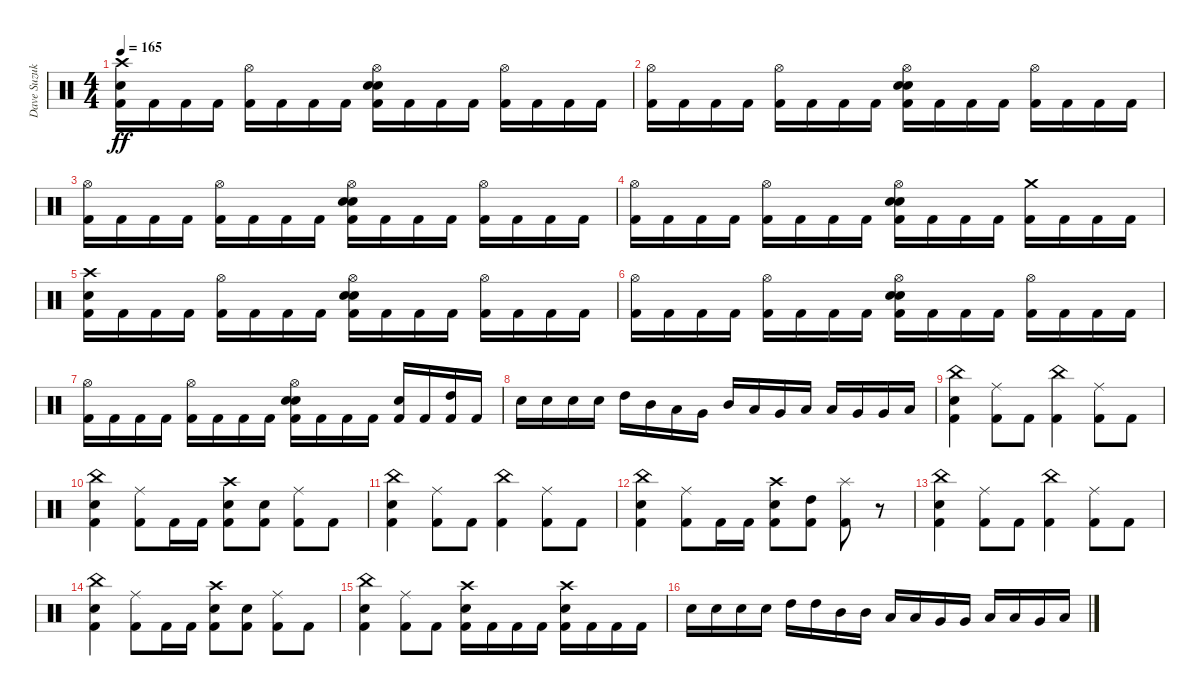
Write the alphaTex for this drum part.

\track ("Dave Suzuki - Drums" "Dave Suzuk") {instrument percussion}
\staff {score}
\articulation defaults
\ts (4 4)
\tempo 165
\clef neutral
\ks c
("Crash high (hit)" "Electric Snare (hit)" "Kick (hit) 2").16{dy ff} "Kick (hit) 2".16 "Kick (hit) 2".16 "Kick (hit) 2".16 ("Hi-Hat (open)" "Kick (hit) 2").16 "Kick (hit) 2".16 "Kick (hit) 2".16 "Kick (hit) 2".16 ("Hi-Hat (open)" "Electric Snare (hit)" "Electric Snare (hit)" "Kick (hit) 2").16 "Kick (hit) 2".16 "Kick (hit) 2".16 "Kick (hit) 2".16 ("Hi-Hat (open)" "Kick (hit) 2").16 "Kick (hit) 2".16 "Kick (hit) 2".16 "Kick (hit) 2".16 |
("Hi-Hat (open)" "Kick (hit) 2").16 "Kick (hit) 2".16 "Kick (hit) 2".16 "Kick (hit) 2".16 ("Hi-Hat (open)" "Kick (hit) 2").16 "Kick (hit) 2".16 "Kick (hit) 2".16 "Kick (hit) 2".16 ("Hi-Hat (open)" "Electric Snare (hit)" "Electric Snare (hit)" "Kick (hit) 2").16 "Kick (hit) 2".16 "Kick (hit) 2".16 "Kick (hit) 2".16 ("Hi-Hat (open)" "Kick (hit) 2").16 "Kick (hit) 2".16 "Kick (hit) 2".16 "Kick (hit) 2".16 |
("Hi-Hat (open)" "Kick (hit) 2").16 "Kick (hit) 2".16 "Kick (hit) 2".16 "Kick (hit) 2".16 ("Hi-Hat (open)" "Kick (hit) 2").16 "Kick (hit) 2".16 "Kick (hit) 2".16 "Kick (hit) 2".16 ("Hi-Hat (open)" "Electric Snare (hit)" "Electric Snare (hit)" "Kick (hit) 2").16 "Kick (hit) 2".16 "Kick (hit) 2".16 "Kick (hit) 2".16 ("Hi-Hat (open)" "Kick (hit) 2").16 "Kick (hit) 2".16 "Kick (hit) 2".16 "Kick (hit) 2".16 |
("Hi-Hat (open)" "Kick (hit) 2").16 "Kick (hit) 2".16 "Kick (hit) 2".16 "Kick (hit) 2".16 ("Hi-Hat (open)" "Kick (hit) 2").16 "Kick (hit) 2".16 "Kick (hit) 2".16 "Kick (hit) 2".16 ("Hi-Hat (open)" "Electric Snare (hit)" "Electric Snare (hit)" "Kick (hit) 2").16 "Kick (hit) 2".16 "Kick (hit) 2".16 "Kick (hit) 2".16 ("Crash medium (hit)" "Kick (hit) 2").16 "Kick (hit) 2".16 "Kick (hit) 2".16 "Kick (hit) 2".16 |
("Crash high (hit)" "Electric Snare (hit)" "Kick (hit) 2").16 "Kick (hit) 2".16 "Kick (hit) 2".16 "Kick (hit) 2".16 ("Hi-Hat (open)" "Kick (hit) 2").16 "Kick (hit) 2".16 "Kick (hit) 2".16 "Kick (hit) 2".16 ("Hi-Hat (open)" "Electric Snare (hit)" "Electric Snare (hit)" "Kick (hit) 2").16 "Kick (hit) 2".16 "Kick (hit) 2".16 "Kick (hit) 2".16 ("Hi-Hat (open)" "Kick (hit) 2").16 "Kick (hit) 2".16 "Kick (hit) 2".16 "Kick (hit) 2".16 |
("Hi-Hat (open)" "Kick (hit) 2").16 "Kick (hit) 2".16 "Kick (hit) 2".16 "Kick (hit) 2".16 ("Hi-Hat (open)" "Kick (hit) 2").16 "Kick (hit) 2".16 "Kick (hit) 2".16 "Kick (hit) 2".16 ("Hi-Hat (open)" "Electric Snare (hit)" "Electric Snare (hit)" "Kick (hit) 2").16 "Kick (hit) 2".16 "Kick (hit) 2".16 "Kick (hit) 2".16 ("Hi-Hat (open)" "Kick (hit) 2").16 "Kick (hit) 2".16 "Kick (hit) 2".16 "Kick (hit) 2".16 |
("Hi-Hat (open)" "Kick (hit) 2").16 "Kick (hit) 2".16 "Kick (hit) 2".16 "Kick (hit) 2".16 ("Hi-Hat (open)" "Kick (hit) 2").16 "Kick (hit) 2".16 "Kick (hit) 2".16 "Kick (hit) 2".16 ("Hi-Hat (open)" "Electric Snare (hit)" "Electric Snare (hit)" "Kick (hit) 2").16 "Kick (hit) 2".16 "Kick (hit) 2".16 "Kick (hit) 2".16 ("Electric Snare (hit)" "Kick (hit) 2").16 "Kick (hit) 2".16 ("High Tom (hit)" "Kick (hit) 2").16 "Kick (hit) 2".16 |
"Electric Snare (hit)".16 "Electric Snare (hit)".16 "Electric Snare (hit)".16 "Electric Snare (hit)".16 "High Tom (hit)".16 "Mid Tom (hit)".16 "Low Tom (hit)".16 "Very Low Tom (hit)".16 "Mid Tom (hit)".16 "Low Tom (hit)".16 "Very Low Tom (hit)".16 "Low Floor Tom (hit)".16 "Low Tom (hit)".16 "Very Low Tom (hit)".16 "Very Low Tom (hit)".16 "Low Floor Tom (hit)".16 |
("China (hit)" "Electric Snare (hit)" "Kick (hit) 2").4 ("Ride (middle)" "Kick (hit) 2").8 "Kick (hit) 2".8 ("China (hit)" "Kick (hit) 2").4 ("Ride (middle)" "Kick (hit) 2").8 "Kick (hit) 2".8 |
("China (hit)" "Electric Snare (hit)" "Kick (hit) 2").4 ("Ride (middle)" "Kick (hit) 2").8 "Kick (hit) 2".16 "Kick (hit) 2".16 ("Crash high (hit)" "Electric Snare (hit)" "Kick (hit) 2").8 ("Electric Snare (hit)" "Kick (hit) 2").8 ("Ride (middle)" "Kick (hit) 2").8 "Kick (hit) 2".8 |
("China (hit)" "Electric Snare (hit)" "Kick (hit) 2").4 ("Ride (middle)" "Kick (hit) 2").8 "Kick (hit) 2".8 ("China (hit)" "Kick (hit) 2").4 ("Ride (middle)" "Kick (hit) 2").8 "Kick (hit) 2".8 |
("China (hit)" "Electric Snare (hit)" "Kick (hit) 2").4 ("Ride (middle)" "Kick (hit) 2").8 "Kick (hit) 2".16 "Kick (hit) 2".16 ("Crash high (hit)" "Electric Snare (hit)" "Kick (hit) 2").8 ("High Tom (hit)" "Kick (hit) 2").8 ("Splash (hit)" "Kick (hit) 2").8 r.8 |
("China (hit)" "Electric Snare (hit)" "Kick (hit) 2").4 ("Ride (middle)" "Kick (hit) 2").8 "Kick (hit) 2".8 ("China (hit)" "Kick (hit) 2").4 ("Ride (middle)" "Kick (hit) 2").8 "Kick (hit) 2".8 |
("China (hit)" "Electric Snare (hit)" "Kick (hit) 2").4 ("Ride (middle)" "Kick (hit) 2").8 "Kick (hit) 2".16 "Kick (hit) 2".16 ("Crash high (hit)" "Electric Snare (hit)" "Kick (hit) 2").8 ("Electric Snare (hit)" "Kick (hit) 2").8 ("Ride (middle)" "Kick (hit) 2").8 "Kick (hit) 2".8 |
("China (hit)" "Electric Snare (hit)" "Kick (hit) 2").4 ("Ride (middle)" "Kick (hit) 2").8 "Kick (hit) 2".8 ("Crash high (hit)" "Electric Snare (hit)" "Kick (hit) 2").16 "Kick (hit) 2".16 "Kick (hit) 2".16 "Kick (hit) 2".16 ("Crash high (hit)" "Electric Snare (hit)" "Kick (hit) 2").16 "Kick (hit) 2".16 "Kick (hit) 2".16 "Kick (hit) 2".16 |
"Electric Snare (hit)".16 "Electric Snare (hit)".16 "Electric Snare (hit)".16 "Electric Snare (hit)".16 "High Tom (hit)".16 "High Tom (hit)".16 "Mid Tom (hit)".16 "Mid Tom (hit)".16 "Low Tom (hit)".16 "Low Tom (hit)".16 "Very Low Tom (hit)".16 "Very Low Tom (hit)".16 "Low Floor Tom (hit)".16 "Low Floor Tom (hit)".16 "Very Low Tom (hit)".16 "Low Floor Tom (hit)".16
